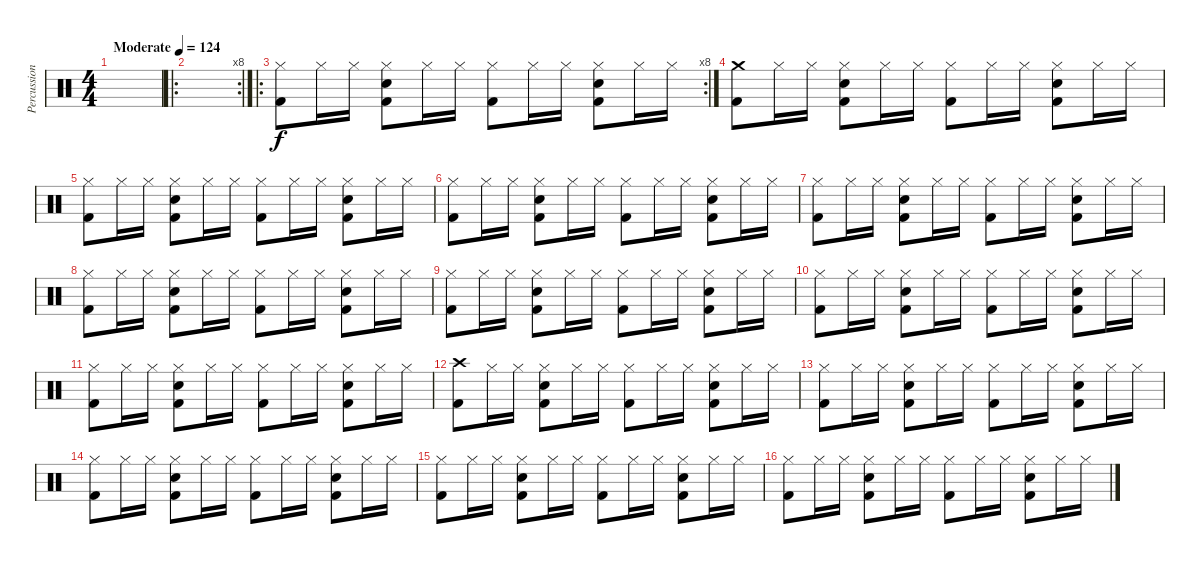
\track ("Percussion" "Percussion") {instrument percussion}
\staff {score}
\articulation defaults
\ts (4 4)
\tempo (124 "Moderate")
\clef neutral
\ks c
|
\ro
\rc 8
|
\ro
\rc 8
("Hi-Hat (closed)" "Kick (hit) 2").8 "Hi-Hat (closed)".16 "Hi-Hat (closed)".16 ("Hi-Hat (closed)" "Snare (hit) 2" "Kick (hit) 2").8 "Hi-Hat (closed)".16 "Hi-Hat (closed)".16 ("Hi-Hat (closed)" "Kick (hit) 2").8 "Hi-Hat (closed)".16 "Hi-Hat (closed)".16 ("Hi-Hat (closed)" "Snare (hit) 2" "Kick (hit) 2").8 "Hi-Hat (closed)".16 "Hi-Hat (closed)".16 |
("Crash medium (hit)" "Kick (hit) 2").8 "Hi-Hat (closed)".16 "Hi-Hat (closed)".16 ("Hi-Hat (closed)" "Snare (hit) 2" "Kick (hit) 2").8 "Hi-Hat (closed)".16 "Hi-Hat (closed)".16 ("Hi-Hat (closed)" "Kick (hit) 2").8 "Hi-Hat (closed)".16 "Hi-Hat (closed)".16 ("Hi-Hat (closed)" "Snare (hit) 2" "Kick (hit) 2").8 "Hi-Hat (closed)".16 "Hi-Hat (closed)".16 |
("Hi-Hat (closed)" "Kick (hit) 2").8 "Hi-Hat (closed)".16 "Hi-Hat (closed)".16 ("Hi-Hat (closed)" "Snare (hit) 2" "Kick (hit) 2").8 "Hi-Hat (closed)".16 "Hi-Hat (closed)".16 ("Hi-Hat (closed)" "Kick (hit) 2").8 "Hi-Hat (closed)".16 "Hi-Hat (closed)".16 ("Hi-Hat (closed)" "Snare (hit) 2" "Kick (hit) 2").8 "Hi-Hat (closed)".16 "Hi-Hat (closed)".16 |
("Hi-Hat (closed)" "Kick (hit) 2").8 "Hi-Hat (closed)".16 "Hi-Hat (closed)".16 ("Hi-Hat (closed)" "Snare (hit) 2" "Kick (hit) 2").8 "Hi-Hat (closed)".16 "Hi-Hat (closed)".16 ("Hi-Hat (closed)" "Kick (hit) 2").8 "Hi-Hat (closed)".16 "Hi-Hat (closed)".16 ("Hi-Hat (closed)" "Snare (hit) 2" "Kick (hit) 2").8 "Hi-Hat (closed)".16 "Hi-Hat (closed)".16 |
("Hi-Hat (closed)" "Kick (hit) 2").8 "Hi-Hat (closed)".16 "Hi-Hat (closed)".16 ("Hi-Hat (closed)" "Snare (hit) 2" "Kick (hit) 2").8 "Hi-Hat (closed)".16 "Hi-Hat (closed)".16 ("Hi-Hat (closed)" "Kick (hit) 2").8 "Hi-Hat (closed)".16 "Hi-Hat (closed)".16 ("Hi-Hat (closed)" "Snare (hit) 2" "Kick (hit) 2").8 "Hi-Hat (closed)".16 "Hi-Hat (closed)".16 |
("Hi-Hat (closed)" "Kick (hit) 2").8 "Hi-Hat (closed)".16 "Hi-Hat (closed)".16 ("Hi-Hat (closed)" "Snare (hit) 2" "Kick (hit) 2").8 "Hi-Hat (closed)".16 "Hi-Hat (closed)".16 ("Hi-Hat (closed)" "Kick (hit) 2").8 "Hi-Hat (closed)".16 "Hi-Hat (closed)".16 ("Hi-Hat (closed)" "Snare (hit) 2" "Kick (hit) 2").8 "Hi-Hat (closed)".16 "Hi-Hat (closed)".16 |
("Hi-Hat (closed)" "Kick (hit) 2").8 "Hi-Hat (closed)".16 "Hi-Hat (closed)".16 ("Hi-Hat (closed)" "Snare (hit) 2" "Kick (hit) 2").8 "Hi-Hat (closed)".16 "Hi-Hat (closed)".16 ("Hi-Hat (closed)" "Kick (hit) 2").8 "Hi-Hat (closed)".16 "Hi-Hat (closed)".16 ("Hi-Hat (closed)" "Snare (hit) 2" "Kick (hit) 2").8 "Hi-Hat (closed)".16 "Hi-Hat (closed)".16 |
("Hi-Hat (closed)" "Kick (hit) 2").8 "Hi-Hat (closed)".16 "Hi-Hat (closed)".16 ("Hi-Hat (closed)" "Snare (hit) 2" "Kick (hit) 2").8 "Hi-Hat (closed)".16 "Hi-Hat (closed)".16 ("Hi-Hat (closed)" "Kick (hit) 2").8 "Hi-Hat (closed)".16 "Hi-Hat (closed)".16 ("Hi-Hat (closed)" "Snare (hit) 2" "Kick (hit) 2").8 "Hi-Hat (closed)".16 "Hi-Hat (closed)".16 |
("Hi-Hat (closed)" "Kick (hit) 2").8 "Hi-Hat (closed)".16 "Hi-Hat (closed)".16 ("Hi-Hat (closed)" "Snare (hit) 2" "Kick (hit) 2").8 "Hi-Hat (closed)".16 "Hi-Hat (closed)".16 ("Hi-Hat (closed)" "Kick (hit) 2").8 "Hi-Hat (closed)".16 "Hi-Hat (closed)".16 ("Hi-Hat (closed)" "Snare (hit) 2" "Kick (hit) 2").8 "Hi-Hat (closed)".16 "Hi-Hat (closed)".16 |
("Crash high (hit)" "Kick (hit) 2").8 "Hi-Hat (closed)".16 "Hi-Hat (closed)".16 ("Hi-Hat (closed)" "Snare (hit) 2" "Kick (hit) 2").8 "Hi-Hat (closed)".16 "Hi-Hat (closed)".16 ("Hi-Hat (closed)" "Kick (hit) 2").8 "Hi-Hat (closed)".16 "Hi-Hat (closed)".16 ("Hi-Hat (closed)" "Snare (hit) 2" "Kick (hit) 2").8 "Hi-Hat (closed)".16 "Hi-Hat (closed)".16 |
("Hi-Hat (closed)" "Kick (hit) 2").8 "Hi-Hat (closed)".16 "Hi-Hat (closed)".16 ("Hi-Hat (closed)" "Snare (hit) 2" "Kick (hit) 2").8 "Hi-Hat (closed)".16 "Hi-Hat (closed)".16 ("Hi-Hat (closed)" "Kick (hit) 2").8 "Hi-Hat (closed)".16 "Hi-Hat (closed)".16 ("Hi-Hat (closed)" "Snare (hit) 2" "Kick (hit) 2").8 "Hi-Hat (closed)".16 "Hi-Hat (closed)".16 |
("Hi-Hat (closed)" "Kick (hit) 2").8 "Hi-Hat (closed)".16 "Hi-Hat (closed)".16 ("Hi-Hat (closed)" "Snare (hit) 2" "Kick (hit) 2").8 "Hi-Hat (closed)".16 "Hi-Hat (closed)".16 ("Hi-Hat (closed)" "Kick (hit) 2").8 "Hi-Hat (closed)".16 "Hi-Hat (closed)".16 ("Hi-Hat (closed)" "Snare (hit) 2" "Kick (hit) 2").8 "Hi-Hat (closed)".16 "Hi-Hat (closed)".16 |
("Hi-Hat (closed)" "Kick (hit) 2").8 "Hi-Hat (closed)".16 "Hi-Hat (closed)".16 ("Hi-Hat (closed)" "Snare (hit) 2" "Kick (hit) 2").8 "Hi-Hat (closed)".16 "Hi-Hat (closed)".16 ("Hi-Hat (closed)" "Kick (hit) 2").8 "Hi-Hat (closed)".16 "Hi-Hat (closed)".16 ("Hi-Hat (closed)" "Snare (hit) 2" "Kick (hit) 2").8 "Hi-Hat (closed)".16 "Hi-Hat (closed)".16 |
("Hi-Hat (closed)" "Kick (hit) 2").8 "Hi-Hat (closed)".16 "Hi-Hat (closed)".16 ("Hi-Hat (closed)" "Snare (hit) 2" "Kick (hit) 2").8 "Hi-Hat (closed)".16 "Hi-Hat (closed)".16 ("Hi-Hat (closed)" "Kick (hit) 2").8 "Hi-Hat (closed)".16 "Hi-Hat (closed)".16 ("Hi-Hat (closed)" "Snare (hit) 2" "Kick (hit) 2").8 "Hi-Hat (closed)".16 "Hi-Hat (closed)".16
